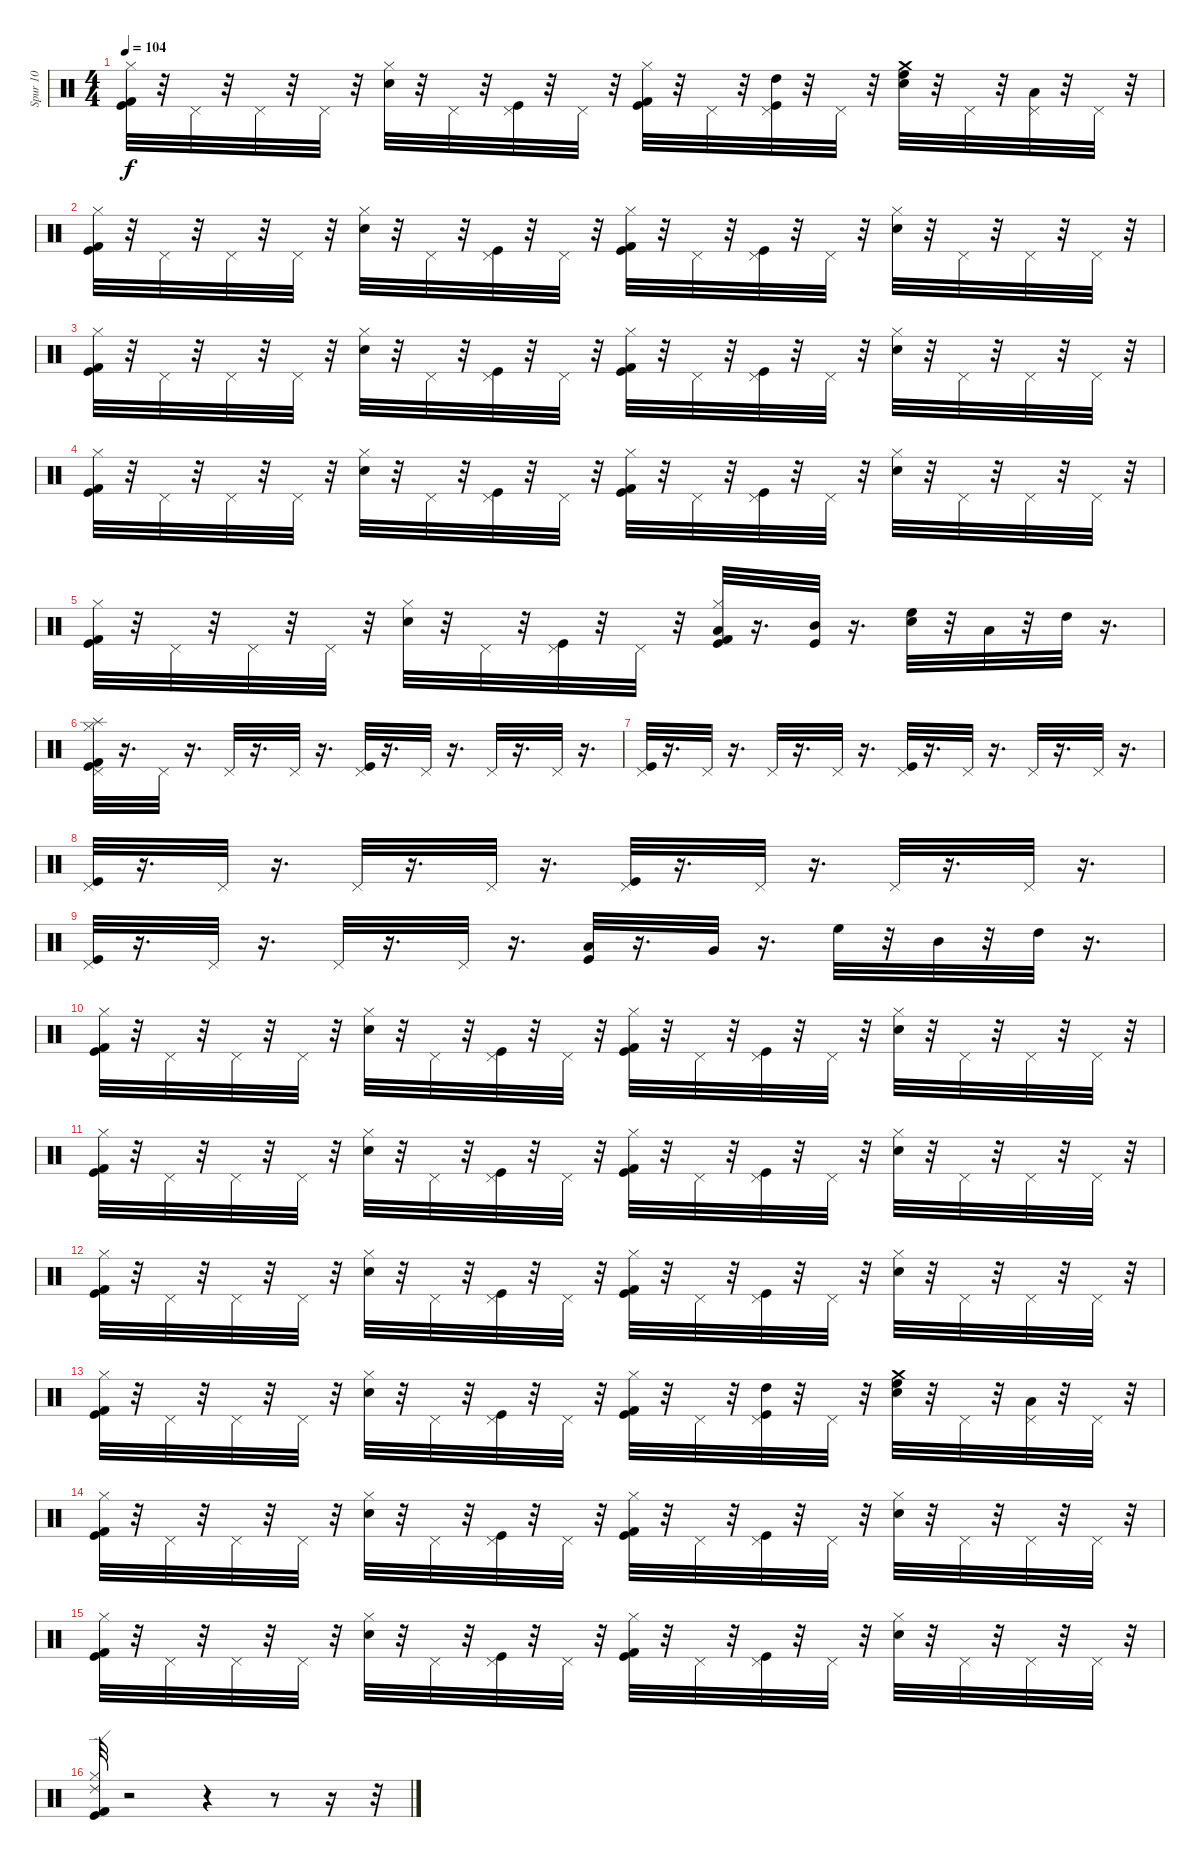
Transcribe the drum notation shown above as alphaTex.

\track ("Spur 10" "Spur 10") {instrument percussion}
\staff {score}
\articulation defaults
\ts (4 4)
\tempo 104
\clef neutral
\ks c
("Kick (hit) 2" "Kick (hit)" "Hi-Hat (closed)").32{dy f} r.32 "Pedal Hi-Hat (hit)".32 r.32 "Pedal Hi-Hat (hit)".32 r.32 "Pedal Hi-Hat (hit)".32 r.32 ("Electric Snare (hit)" "Hi-Hat (closed)").32 r.32 "Pedal Hi-Hat (hit)".32 r.32 ("Kick (hit)" "Pedal Hi-Hat (hit)").32 r.32 "Pedal Hi-Hat (hit)".32 r.32 ("Hi-Hat (closed)" "Kick (hit) 2" "Kick (hit)").32 r.32 "Pedal Hi-Hat (hit)".32 r.32 ("Kick (hit)" "Pedal Hi-Hat (hit)" "High Tom (hit)").32 r.32 "Pedal Hi-Hat (hit)".32 r.32 ("High Floor Tom (hit)" "Crash medium (hit)" "Electric Snare (hit)").32 r.32 "Pedal Hi-Hat (hit)".32 r.32 ("Low Tom (hit)" "Pedal Hi-Hat (hit)").32 r.32 "Pedal Hi-Hat (hit)".32 r.32 |
("Hi-Hat (closed)" "Kick (hit)" "Kick (hit) 2").32 r.32 "Pedal Hi-Hat (hit)".32 r.32 "Pedal Hi-Hat (hit)".32 r.32 "Pedal Hi-Hat (hit)".32 r.32 ("Hi-Hat (closed)" "Electric Snare (hit)").32 r.32 "Pedal Hi-Hat (hit)".32 r.32 ("Pedal Hi-Hat (hit)" "Kick (hit)").32 r.32 "Pedal Hi-Hat (hit)".32 r.32 ("Kick (hit) 2" "Kick (hit)" "Hi-Hat (closed)").32 r.32 "Pedal Hi-Hat (hit)".32 r.32 ("Pedal Hi-Hat (hit)" "Kick (hit)").32 r.32 "Pedal Hi-Hat (hit)".32 r.32 ("Hi-Hat (closed)" "Electric Snare (hit)").32 r.32 "Pedal Hi-Hat (hit)".32 r.32 "Pedal Hi-Hat (hit)".32 r.32 "Pedal Hi-Hat (hit)".32 r.32 |
("Kick (hit) 2" "Kick (hit)" "Hi-Hat (closed)").32 r.32 "Pedal Hi-Hat (hit)".32 r.32 "Pedal Hi-Hat (hit)".32 r.32 "Pedal Hi-Hat (hit)".32 r.32 ("Electric Snare (hit)" "Hi-Hat (closed)").32 r.32 "Pedal Hi-Hat (hit)".32 r.32 ("Kick (hit)" "Pedal Hi-Hat (hit)").32 r.32 "Pedal Hi-Hat (hit)".32 r.32 ("Hi-Hat (closed)" "Kick (hit) 2" "Kick (hit)").32 r.32 "Pedal Hi-Hat (hit)".32 r.32 ("Kick (hit)" "Pedal Hi-Hat (hit)").32 r.32 "Pedal Hi-Hat (hit)".32 r.32 ("Hi-Hat (closed)" "Electric Snare (hit)").32 r.32 "Pedal Hi-Hat (hit)".32 r.32 "Pedal Hi-Hat (hit)".32 r.32 "Pedal Hi-Hat (hit)".32 r.32 |
("Hi-Hat (closed)" "Kick (hit) 2" "Kick (hit)").32 r.32 "Pedal Hi-Hat (hit)".32 r.32 "Pedal Hi-Hat (hit)".32 r.32 "Pedal Hi-Hat (hit)".32 r.32 ("Hi-Hat (closed)" "Electric Snare (hit)").32 r.32 "Pedal Hi-Hat (hit)".32 r.32 ("Pedal Hi-Hat (hit)" "Kick (hit)").32 r.32 "Pedal Hi-Hat (hit)".32 r.32 ("Kick (hit) 2" "Kick (hit)" "Hi-Hat (closed)").32 r.32 "Pedal Hi-Hat (hit)".32 r.32 ("Pedal Hi-Hat (hit)" "Kick (hit)").32 r.32 "Pedal Hi-Hat (hit)".32 r.32 ("Hi-Hat (closed)" "Electric Snare (hit)").32 r.32 "Pedal Hi-Hat (hit)".32 r.32 "Pedal Hi-Hat (hit)".32 r.32 "Pedal Hi-Hat (hit)".32 r.32 |
("Kick (hit) 2" "Kick (hit)" "Hi-Hat (closed)").32 r.32 "Pedal Hi-Hat (hit)".32 r.32 "Pedal Hi-Hat (hit)".32 r.32 "Pedal Hi-Hat (hit)".32 r.32 ("Electric Snare (hit)" "Hi-Hat (closed)").32 r.32 "Pedal Hi-Hat (hit)".32 r.32 ("Kick (hit)" "Pedal Hi-Hat (hit)").32 r.32 "Pedal Hi-Hat (hit)".32 r.32 ("Low Tom (hit)" "Hi-Hat (closed)" "Kick (hit) 2" "Kick (hit)").32 r.16{d} ("Kick (hit)" "Mid Tom (hit)").32 r.16{d} ("Electric Snare (hit)" "High Floor Tom (hit)").32 r.32 "Low Tom (hit)".32 r.32 "High Tom (hit)".32 r.16{d} |
("Pedal Hi-Hat (hit)" "Kick (hit) 2" "Hi-Hat (closed)" "Kick (hit)" "Splash (hit)").32 r.16{d} "Pedal Hi-Hat (hit)".32 r.16{d} "Pedal Hi-Hat (hit)".32 r.16{d} "Pedal Hi-Hat (hit)".32 r.16{d} ("Kick (hit)" "Pedal Hi-Hat (hit)").32 r.16{d} "Pedal Hi-Hat (hit)".32 r.16{d} "Pedal Hi-Hat (hit)".32 r.16{d} "Pedal Hi-Hat (hit)".32 r.16{d} |
("Kick (hit)" "Pedal Hi-Hat (hit)").32 r.16{d} "Pedal Hi-Hat (hit)".32 r.16{d} "Pedal Hi-Hat (hit)".32 r.16{d} "Pedal Hi-Hat (hit)".32 r.16{d} ("Kick (hit)" "Pedal Hi-Hat (hit)").32 r.16{d} "Pedal Hi-Hat (hit)".32 r.16{d} "Pedal Hi-Hat (hit)".32 r.16{d} "Pedal Hi-Hat (hit)".32 r.16{d} |
("Kick (hit)" "Pedal Hi-Hat (hit)").32 r.16{d} "Pedal Hi-Hat (hit)".32 r.16{d} "Pedal Hi-Hat (hit)".32 r.16{d} "Pedal Hi-Hat (hit)".32 r.16{d} ("Kick (hit)" "Pedal Hi-Hat (hit)").32 r.16{d} "Pedal Hi-Hat (hit)".32 r.16{d} "Pedal Hi-Hat (hit)".32 r.16{d} "Pedal Hi-Hat (hit)".32 r.16{d} |
("Kick (hit)" "Pedal Hi-Hat (hit)").32 r.16{d} "Pedal Hi-Hat (hit)".32 r.16{d} "Pedal Hi-Hat (hit)".32 r.16{d} "Pedal Hi-Hat (hit)".32 r.16{d} ("Kick (hit)" "Low Tom (hit)").32 r.16{d} "Very Low Tom (hit)".32 r.16{d} "High Floor Tom (hit)".32 r.32 "Mid Tom (hit)".32 r.32 "High Tom (hit)".32 r.16{d} |
("Kick (hit) 2" "Kick (hit)" "Hi-Hat (closed)").32 r.32 "Pedal Hi-Hat (hit)".32 r.32 "Pedal Hi-Hat (hit)".32 r.32 "Pedal Hi-Hat (hit)".32 r.32 ("Hi-Hat (closed)" "Electric Snare (hit)").32 r.32 "Pedal Hi-Hat (hit)".32 r.32 ("Pedal Hi-Hat (hit)" "Kick (hit)").32 r.32 "Pedal Hi-Hat (hit)".32 r.32 ("Hi-Hat (closed)" "Kick (hit) 2" "Kick (hit)").32 r.32 "Pedal Hi-Hat (hit)".32 r.32 ("Pedal Hi-Hat (hit)" "Kick (hit)").32 r.32 "Pedal Hi-Hat (hit)".32 r.32 ("Hi-Hat (closed)" "Electric Snare (hit)").32 r.32 "Pedal Hi-Hat (hit)".32 r.32 "Pedal Hi-Hat (hit)".32 r.32 "Pedal Hi-Hat (hit)".32 r.32 |
("Hi-Hat (closed)" "Kick (hit) 2" "Kick (hit)").32 r.32 "Pedal Hi-Hat (hit)".32 r.32 "Pedal Hi-Hat (hit)".32 r.32 "Pedal Hi-Hat (hit)".32 r.32 ("Electric Snare (hit)" "Hi-Hat (closed)").32 r.32 "Pedal Hi-Hat (hit)".32 r.32 ("Kick (hit)" "Pedal Hi-Hat (hit)").32 r.32 "Pedal Hi-Hat (hit)".32 r.32 ("Hi-Hat (closed)" "Kick (hit) 2" "Kick (hit)").32 r.32 "Pedal Hi-Hat (hit)".32 r.32 ("Kick (hit)" "Pedal Hi-Hat (hit)").32 r.32 "Pedal Hi-Hat (hit)".32 r.32 ("Hi-Hat (closed)" "Electric Snare (hit)").32 r.32 "Pedal Hi-Hat (hit)".32 r.32 "Pedal Hi-Hat (hit)".32 r.32 "Pedal Hi-Hat (hit)".32 r.32 |
("Kick (hit) 2" "Kick (hit)" "Hi-Hat (closed)").32 r.32 "Pedal Hi-Hat (hit)".32 r.32 "Pedal Hi-Hat (hit)".32 r.32 "Pedal Hi-Hat (hit)".32 r.32 ("Hi-Hat (closed)" "Electric Snare (hit)").32 r.32 "Pedal Hi-Hat (hit)".32 r.32 ("Pedal Hi-Hat (hit)" "Kick (hit)").32 r.32 "Pedal Hi-Hat (hit)".32 r.32 ("Kick (hit) 2" "Kick (hit)" "Hi-Hat (closed)").32 r.32 "Pedal Hi-Hat (hit)".32 r.32 ("Pedal Hi-Hat (hit)" "Kick (hit)").32 r.32 "Pedal Hi-Hat (hit)".32 r.32 ("Hi-Hat (closed)" "Electric Snare (hit)").32 r.32 "Pedal Hi-Hat (hit)".32 r.32 "Pedal Hi-Hat (hit)".32 r.32 "Pedal Hi-Hat (hit)".32 r.32 |
("Hi-Hat (closed)" "Kick (hit) 2" "Kick (hit)").32 r.32 "Pedal Hi-Hat (hit)".32 r.32 "Pedal Hi-Hat (hit)".32 r.32 "Pedal Hi-Hat (hit)".32 r.32 ("Electric Snare (hit)" "Hi-Hat (closed)").32 r.32 "Pedal Hi-Hat (hit)".32 r.32 ("Kick (hit)" "Pedal Hi-Hat (hit)").32 r.32 "Pedal Hi-Hat (hit)".32 r.32 ("Hi-Hat (closed)" "Kick (hit) 2" "Kick (hit)").32 r.32 "Pedal Hi-Hat (hit)".32 r.32 ("Kick (hit)" "Pedal Hi-Hat (hit)" "High Tom (hit)").32 r.32 "Pedal Hi-Hat (hit)".32 r.32 ("High Floor Tom (hit)" "Crash medium (hit)" "Electric Snare (hit)").32 r.32 "Pedal Hi-Hat (hit)".32 r.32 ("Low Tom (hit)" "Pedal Hi-Hat (hit)").32 r.32 "Pedal Hi-Hat (hit)".32 r.32 |
("Hi-Hat (closed)" "Kick (hit)" "Kick (hit) 2").32 r.32 "Pedal Hi-Hat (hit)".32 r.32 "Pedal Hi-Hat (hit)".32 r.32 "Pedal Hi-Hat (hit)".32 r.32 ("Hi-Hat (closed)" "Electric Snare (hit)").32 r.32 "Pedal Hi-Hat (hit)".32 r.32 ("Pedal Hi-Hat (hit)" "Kick (hit)").32 r.32 "Pedal Hi-Hat (hit)".32 r.32 ("Kick (hit) 2" "Kick (hit)" "Hi-Hat (closed)").32 r.32 "Pedal Hi-Hat (hit)".32 r.32 ("Pedal Hi-Hat (hit)" "Kick (hit)").32 r.32 "Pedal Hi-Hat (hit)".32 r.32 ("Hi-Hat (closed)" "Electric Snare (hit)").32 r.32 "Pedal Hi-Hat (hit)".32 r.32 "Pedal Hi-Hat (hit)".32 r.32 "Pedal Hi-Hat (hit)".32 r.32 |
("Kick (hit) 2" "Kick (hit)" "Hi-Hat (closed)").32 r.32 "Pedal Hi-Hat (hit)".32 r.32 "Pedal Hi-Hat (hit)".32 r.32 "Pedal Hi-Hat (hit)".32 r.32 ("Electric Snare (hit)" "Hi-Hat (closed)").32 r.32 "Pedal Hi-Hat (hit)".32 r.32 ("Kick (hit)" "Pedal Hi-Hat (hit)").32 r.32 "Pedal Hi-Hat (hit)".32 r.32 ("Hi-Hat (closed)" "Kick (hit) 2" "Kick (hit)").32 r.32 "Pedal Hi-Hat (hit)".32 r.32 ("Kick (hit)" "Pedal Hi-Hat (hit)").32 r.32 "Pedal Hi-Hat (hit)".32 r.32 ("Hi-Hat (closed)" "Electric Snare (hit)").32 r.32 "Pedal Hi-Hat (hit)".32 r.32 "Pedal Hi-Hat (hit)".32 r.32 "Pedal Hi-Hat (hit)".32 r.32 |
("Ride (edge) 2" "Hi-Hat (closed)" "Kick (hit) 2" "Kick (hit)").32 r.2 r.4 r.8 r.16 r.32
